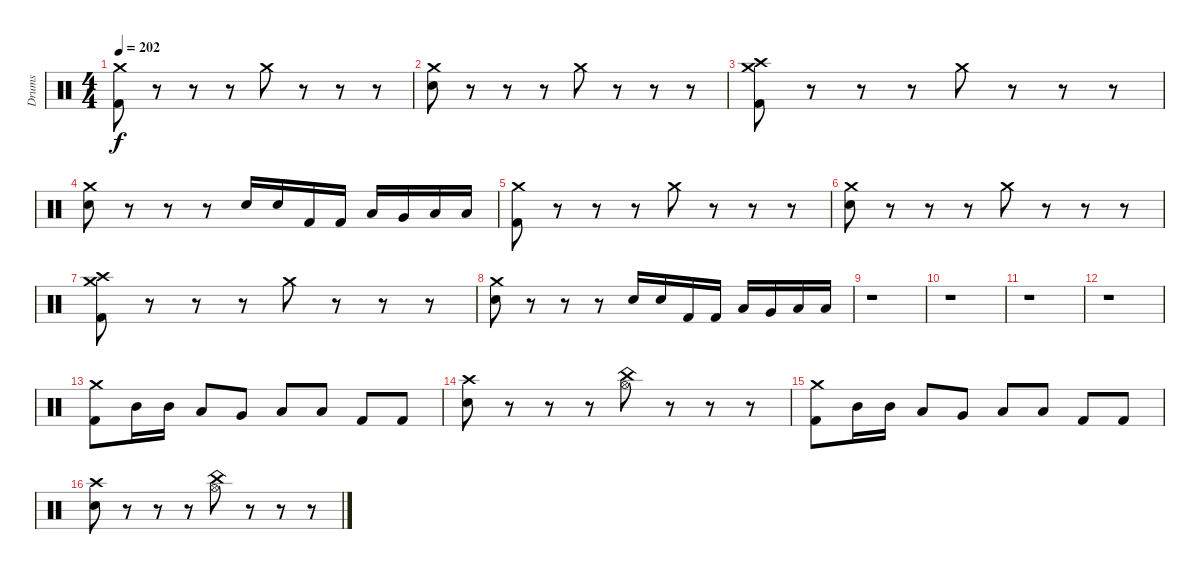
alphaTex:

\track ("Drums" "Drums") {instrument percussion}
\staff {score}
\articulation defaults
\ts (4 4)
\tempo 202
\clef neutral
\ks c
("Crash medium (hit)" "Kick (hit) 2").8{dy f} r.8 r.8 r.8 "Crash medium (hit)".8 r.8 r.8 r.8 |
("Crash medium (hit)" "Electric Snare (hit)").8 r.8 r.8 r.8 "Crash medium (hit)".8 r.8 r.8 r.8 |
("Crash medium (hit)" "Crash high (hit)" "Kick (hit) 2").8 r.8 r.8 r.8 "Crash medium (hit)".8 r.8 r.8 r.8 |
("Crash medium (hit)" "Electric Snare (hit)").8 r.8 r.8 r.8 "Electric Snare (hit)".16 "Electric Snare (hit)".16 "Kick (hit) 2".16 "Kick (hit) 2".16 "Low Tom (hit)".16 "Very Low Tom (hit)".16 "Low Floor Tom (hit)".16 "Low Floor Tom (hit)".16 |
("Crash medium (hit)" "Kick (hit) 2").8 r.8 r.8 r.8 "Crash medium (hit)".8 r.8 r.8 r.8 |
("Crash medium (hit)" "Electric Snare (hit)").8 r.8 r.8 r.8 "Crash medium (hit)".8 r.8 r.8 r.8 |
("Crash medium (hit)" "Crash high (hit)" "Kick (hit) 2").8 r.8 r.8 r.8 "Crash medium (hit)".8 r.8 r.8 r.8 |
("Crash medium (hit)" "Electric Snare (hit)").8 r.8 r.8 r.8 "Electric Snare (hit)".16 "Electric Snare (hit)".16 "Kick (hit) 2".16 "Kick (hit) 2".16 "Low Tom (hit)".16 "Very Low Tom (hit)".16 "Low Floor Tom (hit)".16 "Low Floor Tom (hit)".16 |
r.1 |
r.1 |
r.1 |
r.1 |
("Crash medium (hit)" "Kick (hit) 2").8 "Mid Tom (hit)".16 "Mid Tom (hit)".16 "Low Tom (hit)".8 "Very Low Tom (hit)".8 "Low Floor Tom (hit)".8 "Low Floor Tom (hit)".8 "Kick (hit) 2".8 "Kick (hit) 2".8 |
("Crash high (hit)" "Electric Snare (hit)").8 r.8 r.8 r.8 ("China (hit)" "Hi-Hat (open)").8 r.8 r.8 r.8 |
("Crash medium (hit)" "Kick (hit) 2").8 "Mid Tom (hit)".16 "Mid Tom (hit)".16 "Low Tom (hit)".8 "Very Low Tom (hit)".8 "Low Floor Tom (hit)".8 "Low Floor Tom (hit)".8 "Kick (hit) 2".8 "Kick (hit) 2".8 |
("Crash high (hit)" "Electric Snare (hit)").8 r.8 r.8 r.8 ("China (hit)" "Hi-Hat (open)").8 r.8 r.8 r.8
